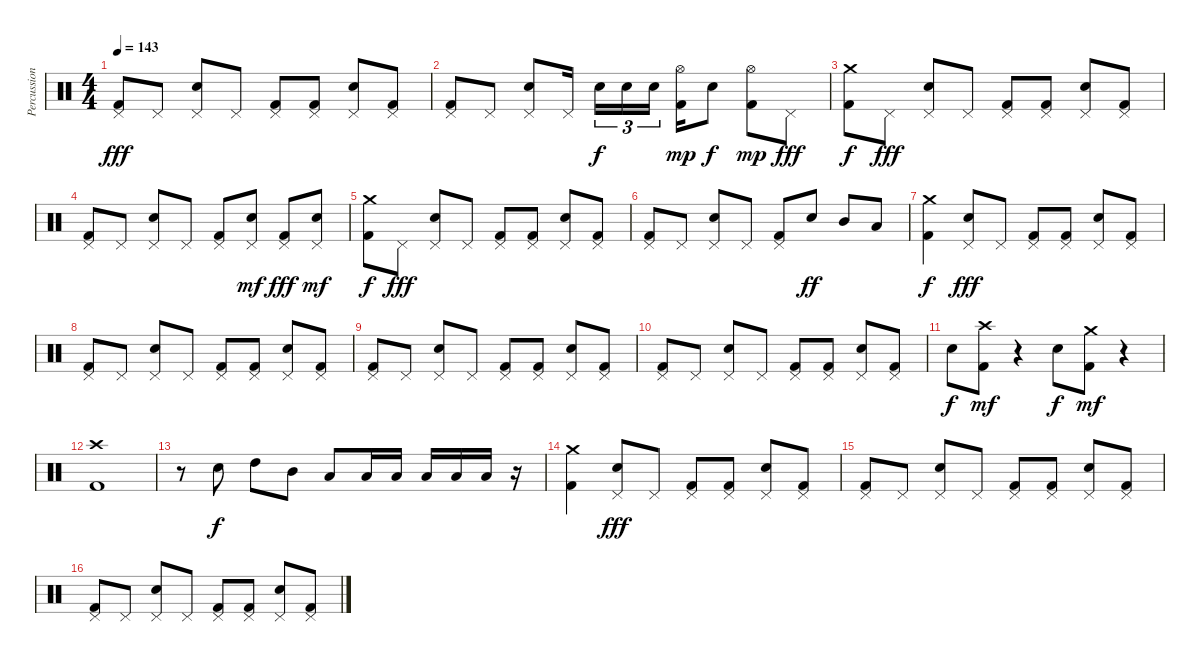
\track ("Percussion" "Percussion") {instrument percussion}
\staff {score}
\articulation defaults
\ts (4 4)
\tempo 143
\clef neutral
\ks c
("Pedal Hi-Hat (hit)" "Kick (hit) 2").8{dy fff} "Pedal Hi-Hat (hit)".8 ("Pedal Hi-Hat (hit)" "Snare (hit) 2").8 "Pedal Hi-Hat (hit)".8 ("Pedal Hi-Hat (hit)" "Kick (hit) 2").8 ("Pedal Hi-Hat (hit)" "Kick (hit) 2").8 ("Pedal Hi-Hat (hit)" "Snare (hit) 2").8 ("Pedal Hi-Hat (hit)" "Kick (hit) 2").8 |
("Pedal Hi-Hat (hit)" "Kick (hit) 2").8 "Pedal Hi-Hat (hit)".8 ("Pedal Hi-Hat (hit)" "Snare (hit) 2").8 "Pedal Hi-Hat (hit)".16 "Snare (hit) 2".16{tu (3 2) dy f} "Snare (hit) 2".16{tu (3 2)} "Snare (hit) 2".16{tu (3 2)} ("Hi-Hat (open)" "Kick (hit) 2").16{dy mp} "Snare (hit) 2".8{dy f} ("Hi-Hat (open)" "Kick (hit) 2").8{dy mp} "Pedal Hi-Hat (hit)".8{dy fff} |
("Crash medium (hit)" "Kick (hit) 2").8{dy f} "Pedal Hi-Hat (hit)".8{dy fff} ("Pedal Hi-Hat (hit)" "Snare (hit) 2").8 "Pedal Hi-Hat (hit)".8 ("Pedal Hi-Hat (hit)" "Kick (hit) 2").8 ("Pedal Hi-Hat (hit)" "Kick (hit) 2").8 ("Pedal Hi-Hat (hit)" "Snare (hit) 2").8 ("Pedal Hi-Hat (hit)" "Kick (hit) 2").8 |
("Pedal Hi-Hat (hit)" "Kick (hit) 2").8 "Pedal Hi-Hat (hit)".8 ("Pedal Hi-Hat (hit)" "Snare (hit) 2").8 "Pedal Hi-Hat (hit)".8 ("Pedal Hi-Hat (hit)" "Kick (hit) 2").8 ("Pedal Hi-Hat (hit)" "Snare (hit) 2").8{dy mf} ("Pedal Hi-Hat (hit)" "Kick (hit) 2").8{dy fff} ("Pedal Hi-Hat (hit)" "Snare (hit) 2").8{dy mf} |
("Crash medium (hit)" "Kick (hit) 2").8{dy f} "Pedal Hi-Hat (hit)".8{dy fff} ("Pedal Hi-Hat (hit)" "Snare (hit) 2").8 "Pedal Hi-Hat (hit)".8 ("Pedal Hi-Hat (hit)" "Kick (hit) 2").8 ("Pedal Hi-Hat (hit)" "Kick (hit) 2").8 ("Pedal Hi-Hat (hit)" "Snare (hit) 2").8 ("Pedal Hi-Hat (hit)" "Kick (hit) 2").8 |
("Pedal Hi-Hat (hit)" "Kick (hit) 2").8 "Pedal Hi-Hat (hit)".8 ("Pedal Hi-Hat (hit)" "Snare (hit) 2").8 "Pedal Hi-Hat (hit)".8 ("Pedal Hi-Hat (hit)" "Kick (hit) 2").8 "Snare (hit) 2".8{dy ff} "Mid Tom (hit)".8 "Low Tom (hit)".8 |
("Crash medium (hit)" "Kick (hit) 2").4{dy f} ("Pedal Hi-Hat (hit)" "Snare (hit) 2").8{dy fff} "Pedal Hi-Hat (hit)".8 ("Pedal Hi-Hat (hit)" "Kick (hit) 2").8 ("Pedal Hi-Hat (hit)" "Kick (hit) 2").8 ("Pedal Hi-Hat (hit)" "Snare (hit) 2").8 ("Pedal Hi-Hat (hit)" "Kick (hit) 2").8 |
("Pedal Hi-Hat (hit)" "Kick (hit) 2").8 "Pedal Hi-Hat (hit)".8 ("Pedal Hi-Hat (hit)" "Snare (hit) 2").8 "Pedal Hi-Hat (hit)".8 ("Pedal Hi-Hat (hit)" "Kick (hit) 2").8 ("Pedal Hi-Hat (hit)" "Kick (hit) 2").8 ("Pedal Hi-Hat (hit)" "Snare (hit) 2").8 ("Pedal Hi-Hat (hit)" "Kick (hit) 2").8 |
("Pedal Hi-Hat (hit)" "Kick (hit) 2").8 "Pedal Hi-Hat (hit)".8 ("Pedal Hi-Hat (hit)" "Snare (hit) 2").8 "Pedal Hi-Hat (hit)".8 ("Pedal Hi-Hat (hit)" "Kick (hit) 2").8 ("Pedal Hi-Hat (hit)" "Kick (hit) 2").8 ("Pedal Hi-Hat (hit)" "Snare (hit) 2").8 ("Pedal Hi-Hat (hit)" "Kick (hit) 2").8 |
("Pedal Hi-Hat (hit)" "Kick (hit) 2").8 "Pedal Hi-Hat (hit)".8 ("Pedal Hi-Hat (hit)" "Snare (hit) 2").8 "Pedal Hi-Hat (hit)".8 ("Pedal Hi-Hat (hit)" "Kick (hit) 2").8 ("Pedal Hi-Hat (hit)" "Kick (hit) 2").8 ("Pedal Hi-Hat (hit)" "Snare (hit) 2").8 ("Pedal Hi-Hat (hit)" "Kick (hit) 2").8 |
"Snare (hit) 2".8{dy f} ("Crash high (hit)" "Kick (hit) 2").8{dy mf} r.4 "Snare (hit) 2".8{dy f} ("Crash medium (hit)" "Kick (hit) 2").8{dy mf} r.4 |
("Crash high (hit)" "Kick (hit) 2").1 |
r.8 "Snare (hit) 2".8{dy f} "High Tom (hit)".8 "Mid Tom (hit)".8 "Low Tom (hit)".8 "Low Tom (hit)".16 "Low Tom (hit)".16 "Low Tom (hit)".16 "Low Tom (hit)".16 "Low Tom (hit)".16 r.16 |
("Crash medium (hit)" "Kick (hit) 2").4 ("Pedal Hi-Hat (hit)" "Snare (hit) 2").8{dy fff} "Pedal Hi-Hat (hit)".8 ("Pedal Hi-Hat (hit)" "Kick (hit) 2").8 ("Pedal Hi-Hat (hit)" "Kick (hit) 2").8 ("Pedal Hi-Hat (hit)" "Snare (hit) 2").8 ("Pedal Hi-Hat (hit)" "Kick (hit) 2").8 |
("Pedal Hi-Hat (hit)" "Kick (hit) 2").8 "Pedal Hi-Hat (hit)".8 ("Pedal Hi-Hat (hit)" "Snare (hit) 2").8 "Pedal Hi-Hat (hit)".8 ("Pedal Hi-Hat (hit)" "Kick (hit) 2").8 ("Pedal Hi-Hat (hit)" "Kick (hit) 2").8 ("Pedal Hi-Hat (hit)" "Snare (hit) 2").8 ("Pedal Hi-Hat (hit)" "Kick (hit) 2").8 |
("Pedal Hi-Hat (hit)" "Kick (hit) 2").8 "Pedal Hi-Hat (hit)".8 ("Pedal Hi-Hat (hit)" "Snare (hit) 2").8 "Pedal Hi-Hat (hit)".8 ("Pedal Hi-Hat (hit)" "Kick (hit) 2").8 ("Pedal Hi-Hat (hit)" "Kick (hit) 2").8 ("Pedal Hi-Hat (hit)" "Snare (hit) 2").8 ("Pedal Hi-Hat (hit)" "Kick (hit) 2").8
